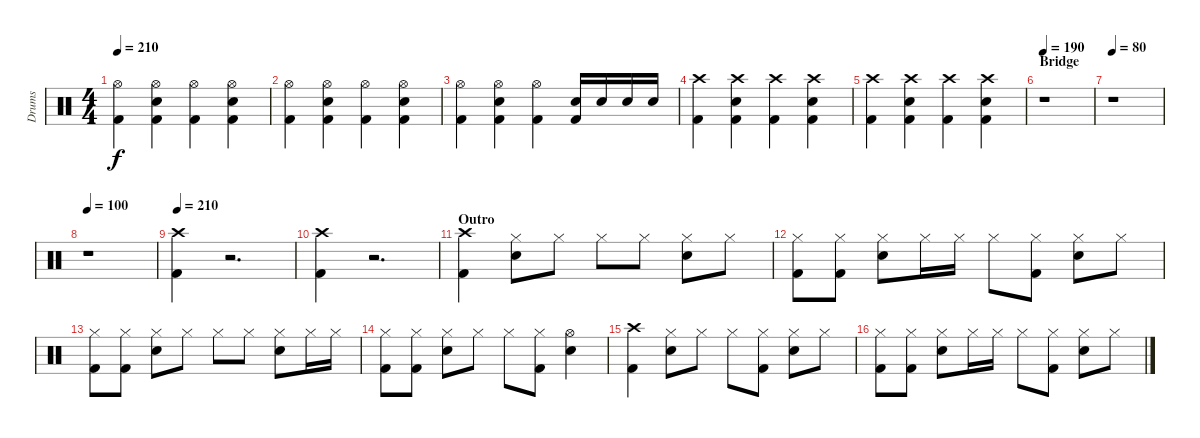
\track ("Drums" "Drums") {instrument percussion}
\staff {score}
\articulation defaults
\ts (4 4)
\tempo 210
\clef neutral
\ks c
("Hi-Hat (open)" "Kick (hit) 2").4{dy f} ("Hi-Hat (open)" "Snare (hit) 2" "Kick (hit) 2").4 ("Hi-Hat (open)" "Kick (hit) 2").4 ("Hi-Hat (open)" "Snare (hit) 2" "Kick (hit) 2").4 |
("Hi-Hat (open)" "Kick (hit) 2").4 ("Hi-Hat (open)" "Snare (hit) 2" "Kick (hit) 2").4 ("Hi-Hat (open)" "Kick (hit) 2").4 ("Hi-Hat (open)" "Snare (hit) 2" "Kick (hit) 2").4 |
("Hi-Hat (open)" "Kick (hit) 2").4 ("Hi-Hat (open)" "Snare (hit) 2" "Kick (hit) 2").4 ("Hi-Hat (open)" "Kick (hit) 2").4 ("Snare (hit) 2" "Kick (hit) 2").16 "Snare (hit) 2".16 "Snare (hit) 2".16 "Snare (hit) 2".16 |
("Crash high (hit)" "Kick (hit) 2").4 ("Crash high (hit)" "Snare (hit) 2" "Kick (hit) 2").4 ("Crash high (hit)" "Kick (hit) 2").4 ("Crash high (hit)" "Snare (hit) 2" "Kick (hit) 2").4 |
("Crash high (hit)" "Kick (hit) 2").4 ("Crash high (hit)" "Snare (hit) 2" "Kick (hit) 2").4 ("Crash high (hit)" "Kick (hit) 2").4 ("Crash high (hit)" "Snare (hit) 2" "Kick (hit) 2").4 |
\section ("" "Bridge")
\tempo 190
r.1 |
\tempo 80
r.1 |
\tempo 100
r.1 |
\tempo 210
("Crash high (hit)" "Kick (hit) 2").4 r.2{d} |
("Crash high (hit)" "Kick (hit) 2").4 r.2{d} |
\section ("" "Outro")
("Crash high (hit)" "Kick (hit) 2").4 ("Hi-Hat (closed)" "Snare (hit) 2").8 "Hi-Hat (closed)".8 "Hi-Hat (closed)".8 "Hi-Hat (closed)".8 ("Hi-Hat (closed)" "Snare (hit) 2").8 "Hi-Hat (closed)".8 |
("Hi-Hat (closed)" "Kick (hit) 2").8 ("Hi-Hat (closed)" "Kick (hit) 2").8 ("Hi-Hat (closed)" "Snare (hit) 2").8 "Hi-Hat (closed)".16 "Hi-Hat (closed)".16 "Hi-Hat (closed)".8 ("Hi-Hat (closed)" "Kick (hit) 2").8 ("Hi-Hat (closed)" "Snare (hit) 2").8 "Hi-Hat (closed)".8 |
("Hi-Hat (closed)" "Kick (hit) 2").8 ("Hi-Hat (closed)" "Kick (hit) 2").8 ("Hi-Hat (closed)" "Snare (hit) 2").8 "Hi-Hat (closed)".8 "Hi-Hat (closed)".8 "Hi-Hat (closed)".8 ("Hi-Hat (closed)" "Snare (hit) 2").8 "Hi-Hat (closed)".16 "Hi-Hat (closed)".16 |
("Hi-Hat (closed)" "Kick (hit) 2").8 ("Hi-Hat (closed)" "Kick (hit) 2").8 ("Hi-Hat (closed)" "Snare (hit) 2").8 "Hi-Hat (closed)".8 "Hi-Hat (closed)".8 ("Hi-Hat (closed)" "Kick (hit) 2").8 ("Hi-Hat (open)" "Snare (hit) 2").4 |
("Crash high (hit)" "Kick (hit) 2").4 ("Hi-Hat (closed)" "Snare (hit) 2").8 "Hi-Hat (closed)".8 "Hi-Hat (closed)".8 ("Hi-Hat (closed)" "Kick (hit) 2").8 ("Hi-Hat (closed)" "Snare (hit) 2").8 "Hi-Hat (closed)".8 |
("Hi-Hat (closed)" "Kick (hit) 2").8 ("Hi-Hat (closed)" "Kick (hit) 2").8 ("Hi-Hat (closed)" "Snare (hit) 2").8 "Hi-Hat (closed)".16 "Hi-Hat (closed)".16 "Hi-Hat (closed)".8 ("Hi-Hat (closed)" "Kick (hit) 2").8 ("Hi-Hat (closed)" "Snare (hit) 2").8 "Hi-Hat (closed)".8
